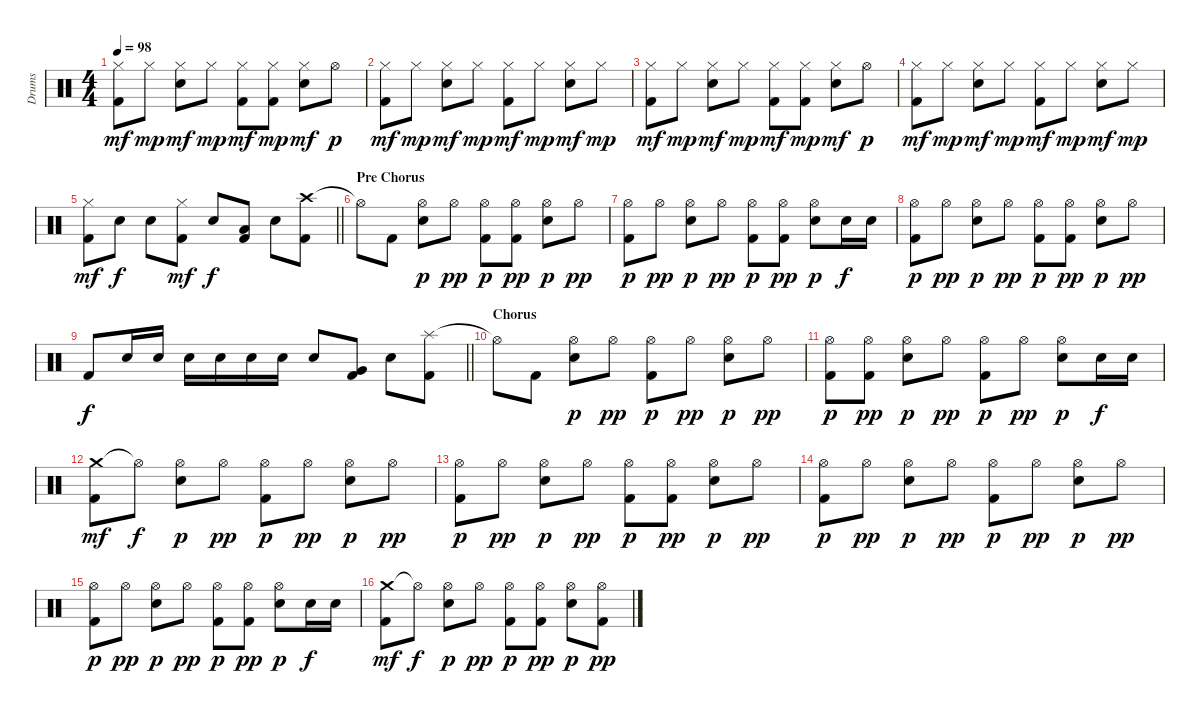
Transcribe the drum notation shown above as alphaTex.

\track ("Drums" "Drums") {instrument percussion}
\staff {score}
\articulation defaults
\ts (4 4)
\tempo 98
\clef neutral
\ks c
("Hi-Hat (closed)" "Kick (hit) 2").8{dy mf} "Hi-Hat (closed)".8{dy mp} ("Hi-Hat (closed)" "Electric Snare (hit)").8{dy mf} "Hi-Hat (closed)".8{dy mp} ("Hi-Hat (closed)" "Kick (hit) 2").8{dy mf} ("Hi-Hat (closed)" "Kick (hit) 2").8{dy mp} ("Hi-Hat (closed)" "Electric Snare (hit)").8{dy mf} "Hi-Hat (open)".8{dy p} |
("Hi-Hat (closed)" "Kick (hit) 2").8{dy mf} "Hi-Hat (closed)".8{dy mp} ("Hi-Hat (closed)" "Electric Snare (hit)").8{dy mf} "Hi-Hat (closed)".8{dy mp} ("Hi-Hat (closed)" "Kick (hit) 2").8{dy mf} "Hi-Hat (closed)".8{dy mp} ("Hi-Hat (closed)" "Electric Snare (hit)").8{dy mf} "Hi-Hat (closed)".8{dy mp} |
("Hi-Hat (closed)" "Kick (hit) 2").8{dy mf} "Hi-Hat (closed)".8{dy mp} ("Hi-Hat (closed)" "Electric Snare (hit)").8{dy mf} "Hi-Hat (closed)".8{dy mp} ("Hi-Hat (closed)" "Kick (hit) 2").8{dy mf} ("Hi-Hat (closed)" "Kick (hit) 2").8{dy mp} ("Hi-Hat (closed)" "Electric Snare (hit)").8{dy mf} "Hi-Hat (open)".8{dy p} |
("Hi-Hat (closed)" "Kick (hit) 2").8{dy mf} "Hi-Hat (closed)".8{dy mp} ("Hi-Hat (closed)" "Electric Snare (hit)").8{dy mf} "Hi-Hat (closed)".8{dy mp} ("Hi-Hat (closed)" "Kick (hit) 2").8{dy mf} "Hi-Hat (closed)".8{dy mp} ("Hi-Hat (closed)" "Electric Snare (hit)").8{dy mf} "Hi-Hat (closed)".8{dy mp} |
\barLineRight lightlight
("Hi-Hat (closed)" "Kick (hit) 2").8{dy mf} "Electric Snare (hit)".8{dy f} "Electric Snare (hit)".8 ("Hi-Hat (closed)" "Kick (hit) 2").8{dy mf} "Electric Snare (hit)".8{dy f} ("Low Tom (hit)" "Kick (hit) 2").8 "Electric Snare (hit)".8 ("Crash high (hit)" "Kick (hit) 2").8 |
\section ("" "Pre Chorus")
"Hi-Hat (open)"{t}.8 "Kick (hit) 2".8 ("Hi-Hat (open)" "Electric Snare (hit)").8{dy p} "Hi-Hat (open)".8{dy pp} ("Hi-Hat (open)" "Kick (hit) 2").8{dy p} ("Hi-Hat (open)" "Kick (hit) 2").8{dy pp} ("Hi-Hat (open)" "Electric Snare (hit)").8{dy p} "Hi-Hat (open)".8{dy pp} |
("Hi-Hat (open)" "Kick (hit) 2").8{dy p} "Hi-Hat (open)".8{dy pp} ("Hi-Hat (open)" "Electric Snare (hit)").8{dy p} "Hi-Hat (open)".8{dy pp} ("Hi-Hat (open)" "Kick (hit) 2").8{dy p} ("Hi-Hat (open)" "Kick (hit) 2").8{dy pp} ("Hi-Hat (open)" "Electric Snare (hit)").8{dy p} "Electric Snare (hit)".16{dy f} "Electric Snare (hit)".16 |
("Hi-Hat (open)" "Kick (hit) 2").8{dy p} "Hi-Hat (open)".8{dy pp} ("Hi-Hat (open)" "Electric Snare (hit)").8{dy p} "Hi-Hat (open)".8{dy pp} ("Hi-Hat (open)" "Kick (hit) 2").8{dy p} ("Hi-Hat (open)" "Kick (hit) 2").8{dy pp} ("Hi-Hat (open)" "Electric Snare (hit)").8{dy p} "Hi-Hat (open)".8{dy pp} |
\barLineRight lightlight "Kick (hit) 2".8{dy f} "Electric Snare (hit)".16 "Electric Snare (hit)".16 "Electric Snare (hit)".16 "Electric Snare (hit)".16 "Electric Snare (hit)".16 "Electric Snare (hit)".16 "Electric Snare (hit)".8
("Very Low Tom (hit)" "Kick (hit) 2").8 "Electric Snare (hit)".8 ("Splash (hit)" "Kick (hit) 2").8 |
\section ("" "Chorus")
"Hi-Hat (open)"{t}.8 "Kick (hit) 2".8 ("Hi-Hat (open)" "Electric Snare (hit)").8{dy p} "Hi-Hat (open)".8{dy pp} ("Hi-Hat (open)" "Kick (hit) 2").8{dy p} "Hi-Hat (open)".8{dy pp} ("Hi-Hat (open)" "Electric Snare (hit)").8{dy p} "Hi-Hat (open)".8{dy pp} |
("Hi-Hat (open)" "Kick (hit) 2").8{dy p} ("Hi-Hat (open)" "Kick (hit) 2").8{dy pp} ("Hi-Hat (open)" "Electric Snare (hit)").8{dy p} "Hi-Hat (open)".8{dy pp} ("Hi-Hat (open)" "Kick (hit) 2").8{dy p} "Hi-Hat (open)".8{dy pp} ("Hi-Hat (open)" "Electric Snare (hit)").8{dy p} "Electric Snare (hit)".16{dy f} "Electric Snare (hit)".16 |
("Crash medium (hit)" "Kick (hit) 2").8{dy mf} "Hi-Hat (open)"{t}.8{dy f} ("Hi-Hat (open)" "Electric Snare (hit)").8{dy p} "Hi-Hat (open)".8{dy pp} ("Hi-Hat (open)" "Kick (hit) 2").8{dy p} "Hi-Hat (open)".8{dy pp} ("Hi-Hat (open)" "Electric Snare (hit)").8{dy p} "Hi-Hat (open)".8{dy pp} |
("Hi-Hat (open)" "Kick (hit) 2").8{dy p} "Hi-Hat (open)".8{dy pp} ("Hi-Hat (open)" "Electric Snare (hit)").8{dy p} "Hi-Hat (open)".8{dy pp} ("Hi-Hat (open)" "Kick (hit) 2").8{dy p} ("Hi-Hat (open)" "Kick (hit) 2").8{dy pp} ("Hi-Hat (open)" "Electric Snare (hit)").8{dy p} "Hi-Hat (open)".8{dy pp} |
("Hi-Hat (open)" "Kick (hit) 2").8{dy p} "Hi-Hat (open)".8{dy pp} ("Hi-Hat (open)" "Electric Snare (hit)").8{dy p} "Hi-Hat (open)".8{dy pp} ("Hi-Hat (open)" "Kick (hit) 2").8{dy p} "Hi-Hat (open)".8{dy pp} ("Hi-Hat (open)" "Electric Snare (hit)").8{dy p} "Hi-Hat (open)".8{dy pp} |
("Hi-Hat (open)" "Kick (hit) 2").8{dy p} "Hi-Hat (open)".8{dy pp} ("Hi-Hat (open)" "Electric Snare (hit)").8{dy p} "Hi-Hat (open)".8{dy pp} ("Hi-Hat (open)" "Kick (hit) 2").8{dy p} ("Hi-Hat (open)" "Kick (hit) 2").8{dy pp} ("Hi-Hat (open)" "Electric Snare (hit)").8{dy p} "Electric Snare (hit)".16{dy f} "Electric Snare (hit)".16 |
("Crash medium (hit)" "Kick (hit) 2").8{dy mf} "Hi-Hat (open)"{t}.8{dy f} ("Hi-Hat (open)" "Electric Snare (hit)").8{dy p} "Hi-Hat (open)".8{dy pp} ("Hi-Hat (open)" "Kick (hit) 2").8{dy p} ("Hi-Hat (open)" "Kick (hit) 2").8{dy pp} ("Hi-Hat (open)" "Electric Snare (hit)").8{dy p} ("Hi-Hat (open)" "Kick (hit) 2").8{dy pp}
